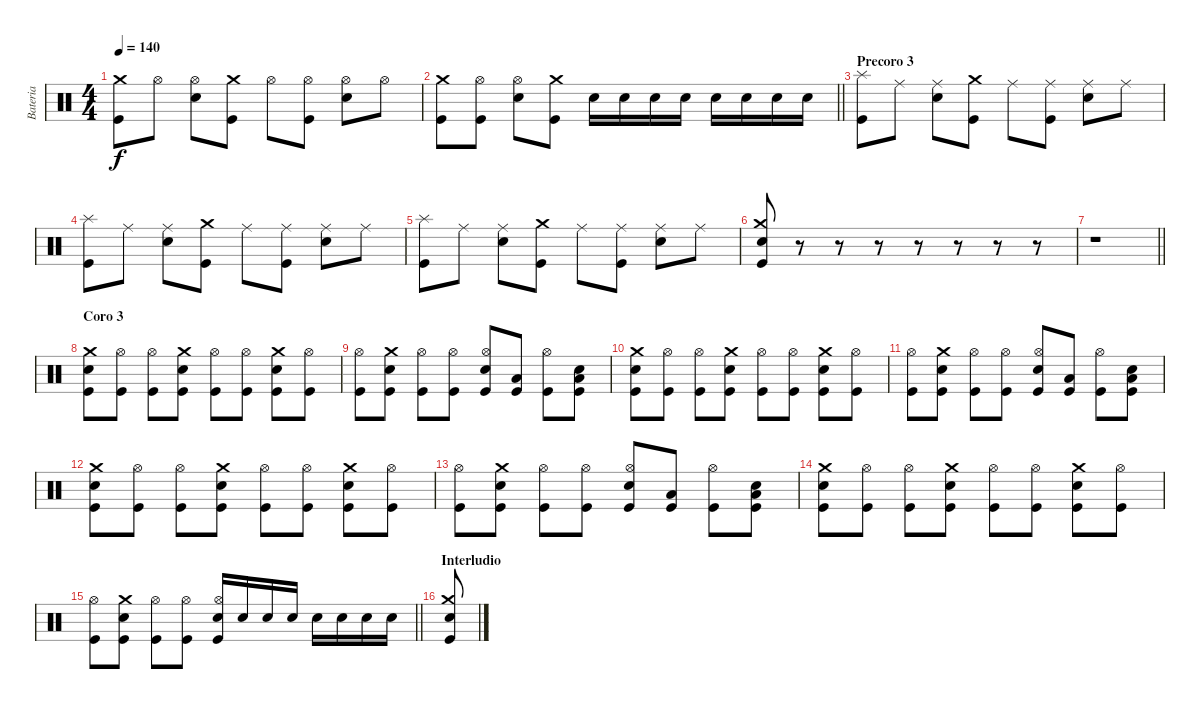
\track ("Bateria" "Bateria") {instrument percussion}
\staff {score}
\articulation defaults
\ts (4 4)
\tempo 140
\clef neutral
\ks c
("Kick (hit)" "Crash medium (hit)").8{dy f} "Hi-Hat (open)".8 ("Snare (hit) 2" "Hi-Hat (open)").8 ("Kick (hit)" "Crash medium (hit)").8 "Hi-Hat (open)".8 ("Kick (hit)" "Hi-Hat (open)").8 ("Snare (hit) 2" "Hi-Hat (open)").8 "Hi-Hat (open)".8 |
\barLineRight lightlight
("Kick (hit)" "Crash medium (hit)").8 ("Kick (hit)" "Hi-Hat (open)").8 ("Snare (hit) 2" "Hi-Hat (open)").8 ("Kick (hit)" "Crash medium (hit)").8 "Snare (hit) 2".16 "Snare (hit) 2".16 "Snare (hit) 2".16 "Snare (hit) 2".16 "Snare (hit) 2".16 "Snare (hit) 2".16 "Snare (hit) 2".16 "Snare (hit) 2".16 |
\section ("" "Precoro 3")
("Kick (hit)" "Splash (hit)").8 "Ride (middle)".8 ("Snare (hit) 2" "Ride (middle)").8 ("Kick (hit)" "Crash medium (hit)").8 "Ride (middle)".8 ("Kick (hit)" "Ride (middle)").8 ("Snare (hit) 2" "Ride (middle)").8 "Ride (middle)".8 |
("Kick (hit)" "Splash (hit)").8 "Ride (middle)".8 ("Snare (hit) 2" "Ride (middle)").8 ("Kick (hit)" "Crash medium (hit)").8 "Ride (middle)".8 ("Kick (hit)" "Ride (middle)").8 ("Snare (hit) 2" "Ride (middle)").8 "Ride (middle)".8 |
("Kick (hit)" "Splash (hit)").8 "Ride (middle)".8 ("Snare (hit) 2" "Ride (middle)").8 ("Kick (hit)" "Crash medium (hit)").8 "Ride (middle)".8 ("Kick (hit)" "Ride (middle)").8 ("Snare (hit) 2" "Ride (middle)").8 "Ride (middle)".8 |
("Kick (hit)" "Snare (hit) 2" "Crash medium (hit)").8 r.8 r.8 r.8 r.8 r.8 r.8 r.8 |
\barLineRight lightlight
r.1 |
\section ("" "Coro 3")
("Kick (hit)" "Snare (hit) 2" "Crash medium (hit)").8 ("Kick (hit)" "Hi-Hat (open)").8 ("Kick (hit)" "Hi-Hat (open)").8 ("Kick (hit)" "Snare (hit) 2" "Crash medium (hit)").8 ("Kick (hit)" "Hi-Hat (open)").8 ("Kick (hit)" "Hi-Hat (open)").8 ("Kick (hit)" "Snare (hit) 2" "Crash medium (hit)").8 ("Kick (hit)" "Hi-Hat (open)").8 |
("Kick (hit)" "Hi-Hat (open)").8 ("Kick (hit)" "Snare (hit) 2" "Crash medium (hit)").8 ("Kick (hit)" "Hi-Hat (open)").8 ("Kick (hit)" "Hi-Hat (open)").8 ("Kick (hit)" "Snare (hit) 2" "Hi-Hat (open)").8 ("Kick (hit)" "Low Floor Tom (hit)").8 ("Kick (hit)" "Hi-Hat (open)").8 ("Kick (hit)" "Snare (hit) 2" "Low Floor Tom (hit)").8 |
("Kick (hit)" "Snare (hit) 2" "Crash medium (hit)").8 ("Kick (hit)" "Hi-Hat (open)").8 ("Kick (hit)" "Hi-Hat (open)").8 ("Kick (hit)" "Snare (hit) 2" "Crash medium (hit)").8 ("Kick (hit)" "Hi-Hat (open)").8 ("Kick (hit)" "Hi-Hat (open)").8 ("Kick (hit)" "Snare (hit) 2" "Crash medium (hit)").8 ("Kick (hit)" "Hi-Hat (open)").8 |
("Kick (hit)" "Hi-Hat (open)").8 ("Kick (hit)" "Snare (hit) 2" "Crash medium (hit)").8 ("Kick (hit)" "Hi-Hat (open)").8 ("Kick (hit)" "Hi-Hat (open)").8 ("Kick (hit)" "Snare (hit) 2" "Hi-Hat (open)").8 ("Kick (hit)" "Low Floor Tom (hit)").8 ("Kick (hit)" "Hi-Hat (open)").8 ("Kick (hit)" "Snare (hit) 2" "Low Floor Tom (hit)").8 |
("Kick (hit)" "Snare (hit) 2" "Crash medium (hit)").8 ("Kick (hit)" "Hi-Hat (open)").8 ("Kick (hit)" "Hi-Hat (open)").8 ("Kick (hit)" "Snare (hit) 2" "Crash medium (hit)").8 ("Kick (hit)" "Hi-Hat (open)").8 ("Kick (hit)" "Hi-Hat (open)").8 ("Kick (hit)" "Snare (hit) 2" "Crash medium (hit)").8 ("Kick (hit)" "Hi-Hat (open)").8 |
("Kick (hit)" "Hi-Hat (open)").8 ("Kick (hit)" "Snare (hit) 2" "Crash medium (hit)").8 ("Kick (hit)" "Hi-Hat (open)").8 ("Kick (hit)" "Hi-Hat (open)").8 ("Kick (hit)" "Snare (hit) 2" "Hi-Hat (open)").8 ("Kick (hit)" "Low Floor Tom (hit)").8 ("Kick (hit)" "Hi-Hat (open)").8 ("Kick (hit)" "Snare (hit) 2" "Low Floor Tom (hit)").8 |
("Kick (hit)" "Snare (hit) 2" "Crash medium (hit)").8 ("Kick (hit)" "Hi-Hat (open)").8 ("Kick (hit)" "Hi-Hat (open)").8 ("Kick (hit)" "Snare (hit) 2" "Crash medium (hit)").8 ("Kick (hit)" "Hi-Hat (open)").8 ("Kick (hit)" "Hi-Hat (open)").8 ("Kick (hit)" "Snare (hit) 2" "Crash medium (hit)").8 ("Kick (hit)" "Hi-Hat (open)").8 |
\barLineRight lightlight
("Kick (hit)" "Hi-Hat (open)").8 ("Kick (hit)" "Snare (hit) 2" "Crash medium (hit)").8 ("Kick (hit)" "Hi-Hat (open)").8 ("Kick (hit)" "Hi-Hat (open)").8 ("Kick (hit)" "Snare (hit) 2" "Hi-Hat (open)").16 "Snare (hit) 2".16 "Snare (hit) 2".16 "Snare (hit) 2".16 "Snare (hit) 2".16 "Snare (hit) 2".16 "Snare (hit) 2".16 "Snare (hit) 2".16 |
\section ("" "Interludio")
("Kick (hit)" "Snare (hit) 2" "Crash medium (hit)").8
